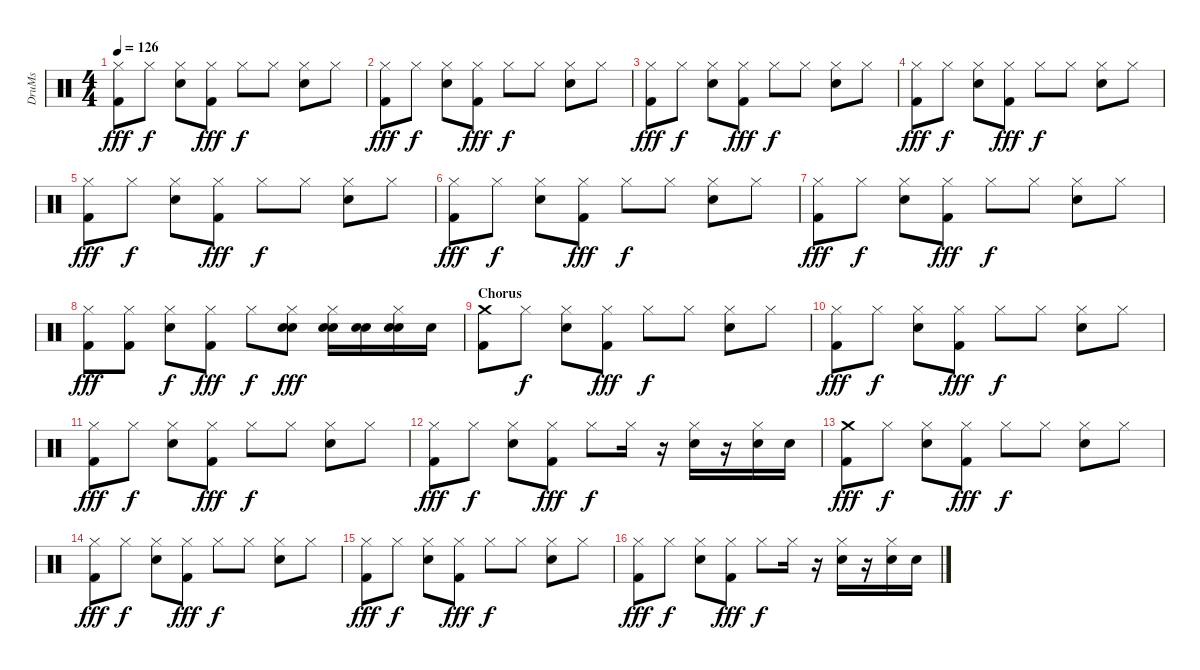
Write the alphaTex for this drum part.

\track ("DruMs" "DruMs") {instrument percussion}
\staff {score}
\articulation defaults
\ts (4 4)
\tempo 126
\clef neutral
\ks c
("Hi-Hat (closed)" "Kick (hit) 2").8{dy fff} "Hi-Hat (closed)".8{dy f} ("Hi-Hat (closed)" "Snare (hit) 2").8 ("Hi-Hat (closed)" "Kick (hit) 2").8{dy fff} "Hi-Hat (closed)".8{dy f} "Hi-Hat (closed)".8 ("Hi-Hat (closed)" "Snare (hit) 2").8 "Hi-Hat (closed)".8 |
("Hi-Hat (closed)" "Kick (hit) 2").8{dy fff} "Hi-Hat (closed)".8{dy f} ("Hi-Hat (closed)" "Snare (hit) 2").8 ("Hi-Hat (closed)" "Kick (hit) 2").8{dy fff} "Hi-Hat (closed)".8{dy f} "Hi-Hat (closed)".8 ("Hi-Hat (closed)" "Snare (hit) 2").8 "Hi-Hat (closed)".8 |
("Hi-Hat (closed)" "Kick (hit) 2").8{dy fff} "Hi-Hat (closed)".8{dy f} ("Hi-Hat (closed)" "Snare (hit) 2").8 ("Hi-Hat (closed)" "Kick (hit) 2").8{dy fff} "Hi-Hat (closed)".8{dy f} "Hi-Hat (closed)".8 ("Hi-Hat (closed)" "Snare (hit) 2").8 "Hi-Hat (closed)".8 |
("Hi-Hat (closed)" "Kick (hit) 2").8{dy fff} "Hi-Hat (closed)".8{dy f} ("Hi-Hat (closed)" "Snare (hit) 2").8 ("Hi-Hat (closed)" "Kick (hit) 2").8{dy fff} "Hi-Hat (closed)".8{dy f} "Hi-Hat (closed)".8 ("Hi-Hat (closed)" "Snare (hit) 2").8 "Hi-Hat (closed)".8 |
("Hi-Hat (closed)" "Kick (hit) 2").8{dy fff} "Hi-Hat (closed)".8{dy f} ("Hi-Hat (closed)" "Snare (hit) 2").8 ("Hi-Hat (closed)" "Kick (hit) 2").8{dy fff} "Hi-Hat (closed)".8{dy f} "Hi-Hat (closed)".8 ("Hi-Hat (closed)" "Snare (hit) 2").8 "Hi-Hat (closed)".8 |
("Hi-Hat (closed)" "Kick (hit) 2").8{dy fff} "Hi-Hat (closed)".8{dy f} ("Hi-Hat (closed)" "Snare (hit) 2").8 ("Hi-Hat (closed)" "Kick (hit) 2").8{dy fff} "Hi-Hat (closed)".8{dy f} "Hi-Hat (closed)".8 ("Hi-Hat (closed)" "Snare (hit) 2").8 "Hi-Hat (closed)".8 |
("Hi-Hat (closed)" "Kick (hit) 2").8{dy fff} "Hi-Hat (closed)".8{dy f} ("Hi-Hat (closed)" "Snare (hit) 2").8 ("Hi-Hat (closed)" "Kick (hit) 2").8{dy fff} "Hi-Hat (closed)".8{dy f} "Hi-Hat (closed)".8 ("Hi-Hat (closed)" "Snare (hit) 2").8 "Hi-Hat (closed)".8 |
("Hi-Hat (closed)" "Kick (hit) 2").8{dy fff} ("Hi-Hat (closed)" "Kick (hit) 2").8 ("Hi-Hat (closed)" "Snare (hit) 2").8{dy f} ("Hi-Hat (closed)" "Kick (hit) 2").8{dy fff} "Hi-Hat (closed)".8{dy f} ("Hi-Hat (closed)" "Snare (hit) 2" "Hand Clap (hit)").8{dy fff} ("Hi-Hat (closed)" "Snare (hit) 2" "Hand Clap (hit)").16 ("Snare (hit) 2" "Hand Clap (hit)").16 ("Hi-Hat (closed)" "Snare (hit) 2" "Hand Clap (hit)").16 "Hand Clap (hit)".16 |
\section ("" "Chorus")
("Crash medium (hit)" "Kick (hit) 2").8 "Hi-Hat (closed)".8{dy f} ("Hi-Hat (closed)" "Snare (hit) 2").8 ("Hi-Hat (closed)" "Kick (hit) 2").8{dy fff} "Hi-Hat (closed)".8{dy f} "Hi-Hat (closed)".8 ("Hi-Hat (closed)" "Snare (hit) 2").8 "Hi-Hat (closed)".8 |
("Hi-Hat (closed)" "Kick (hit) 2").8{dy fff} "Hi-Hat (closed)".8{dy f} ("Hi-Hat (closed)" "Snare (hit) 2").8 ("Hi-Hat (closed)" "Kick (hit) 2").8{dy fff} "Hi-Hat (closed)".8{dy f} "Hi-Hat (closed)".8 ("Hi-Hat (closed)" "Snare (hit) 2").8 "Hi-Hat (closed)".8 |
("Hi-Hat (closed)" "Kick (hit) 2").8{dy fff} "Hi-Hat (closed)".8{dy f} ("Hi-Hat (closed)" "Snare (hit) 2").8 ("Hi-Hat (closed)" "Kick (hit) 2").8{dy fff} "Hi-Hat (closed)".8{dy f} "Hi-Hat (closed)".8 ("Hi-Hat (closed)" "Snare (hit) 2").8 "Hi-Hat (closed)".8 |
("Hi-Hat (closed)" "Kick (hit) 2").8{dy fff} "Hi-Hat (closed)".8{dy f} ("Hi-Hat (closed)" "Snare (hit) 2").8 ("Hi-Hat (closed)" "Kick (hit) 2").8{dy fff} "Hi-Hat (closed)".8{dy f} "Hi-Hat (closed)".16 r.16 ("Hi-Hat (closed)" "Snare (hit) 2").16 r.16 ("Hi-Hat (closed)" "Snare (hit) 2").16 "Snare (hit) 2".16 |
("Crash medium (hit)" "Kick (hit) 2").8{dy fff} "Hi-Hat (closed)".8{dy f} ("Hi-Hat (closed)" "Snare (hit) 2").8 ("Hi-Hat (closed)" "Kick (hit) 2").8{dy fff} "Hi-Hat (closed)".8{dy f} "Hi-Hat (closed)".8 ("Hi-Hat (closed)" "Snare (hit) 2").8 "Hi-Hat (closed)".8 |
("Hi-Hat (closed)" "Kick (hit) 2").8{dy fff} "Hi-Hat (closed)".8{dy f} ("Hi-Hat (closed)" "Snare (hit) 2").8 ("Hi-Hat (closed)" "Kick (hit) 2").8{dy fff} "Hi-Hat (closed)".8{dy f} "Hi-Hat (closed)".8 ("Hi-Hat (closed)" "Snare (hit) 2").8 "Hi-Hat (closed)".8 |
("Hi-Hat (closed)" "Kick (hit) 2").8{dy fff} "Hi-Hat (closed)".8{dy f} ("Hi-Hat (closed)" "Snare (hit) 2").8 ("Hi-Hat (closed)" "Kick (hit) 2").8{dy fff} "Hi-Hat (closed)".8{dy f} "Hi-Hat (closed)".8 ("Hi-Hat (closed)" "Snare (hit) 2").8 "Hi-Hat (closed)".8 |
("Hi-Hat (closed)" "Kick (hit) 2").8{dy fff} "Hi-Hat (closed)".8{dy f} ("Hi-Hat (closed)" "Snare (hit) 2").8 ("Hi-Hat (closed)" "Kick (hit) 2").8{dy fff} "Hi-Hat (closed)".8{dy f} "Hi-Hat (closed)".16 r.16 ("Hi-Hat (closed)" "Snare (hit) 2").16 r.16 ("Hi-Hat (closed)" "Snare (hit) 2").16 "Snare (hit) 2".16
